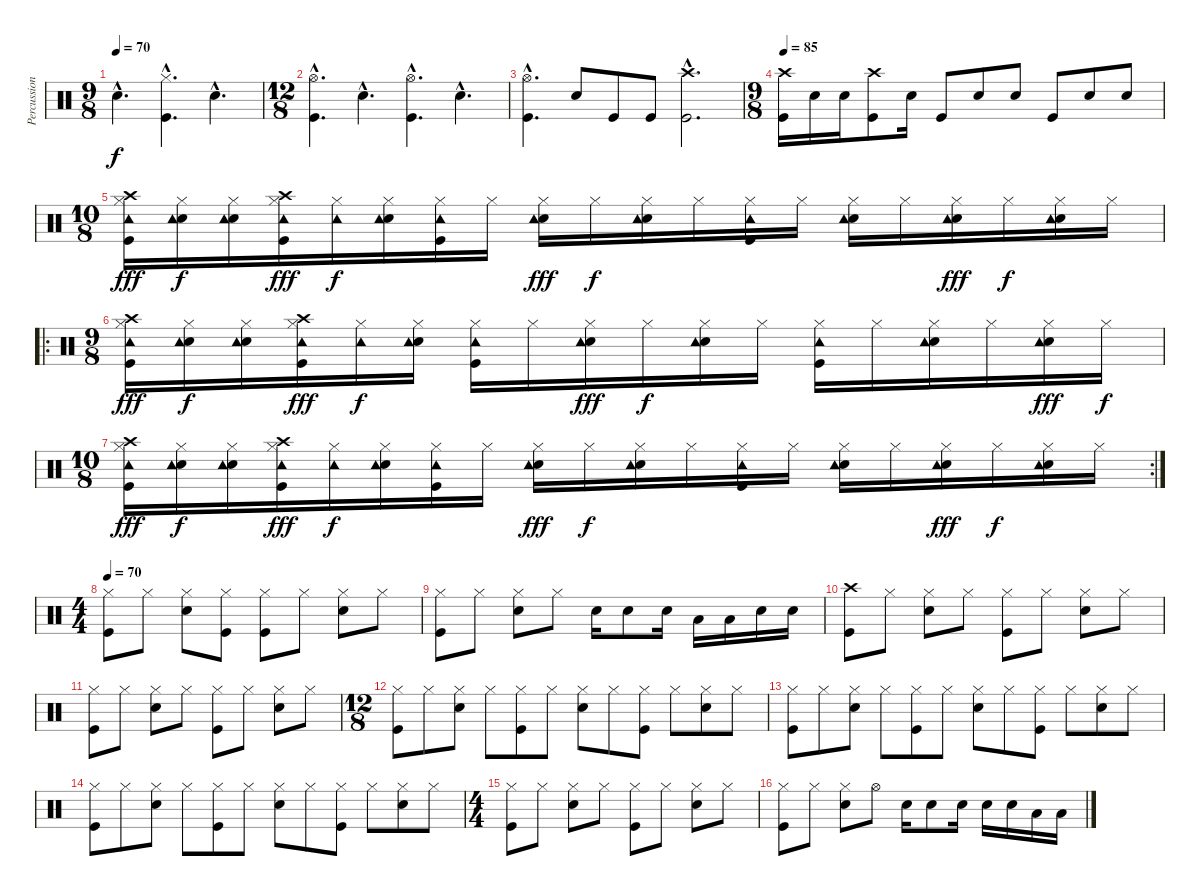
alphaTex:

\track ("Percussion" "Percussion") {instrument percussion}
\staff {score}
\articulation defaults
\ts (9 8)
\tempo 70
\clef neutral
\ks c "Snare (hit) 2"{hac}.4{d dy f}
("Hi-Hat (closed)"{hac} "Kick (hit)"{hac}).4{d} "Snare (hit) 2"{hac}.4{d} |
\ts (12 8)
("Hi-Hat (open)"{hac} "Kick (hit)"{hac}).4{d} "Snare (hit) 2"{hac}.4{d} ("Hi-Hat (open)"{hac} "Kick (hit)"{hac}).4{d} "Snare (hit) 2"{hac}.4{d} |
("Hi-Hat (open)"{hac} "Kick (hit)"{hac}).4{d} "Snare (hit) 2".8 "Kick (hit)".8 "Kick (hit)".8 ("Crash high (hit)"{hac} "Kick (hit)"{hac}).2{d} |
\ts (9 8)
\tempo 85
("Crash high (hit)" "Kick (hit)").16 "Snare (hit) 2".16 "Snare (hit) 2".16 ("Crash high (hit)" "Kick (hit)").8 "Snare (hit) 2".16 "Kick (hit)".8 "Snare (hit) 2".8 "Snare (hit) 2".8 "Kick (hit)".8 "Snare (hit) 2".8 "Snare (hit) 2".8 |
\ts (10 8)
("Crash high (hit)" "Hi-Hat (closed)" "Tambourine (hit)" "Kick (hit)").16{dy fff} ("Hi-Hat (closed)" "Snare (hit) 2" "Tambourine (hit)").16{dy f} ("Hi-Hat (closed)" "Snare (hit) 2" "Tambourine (hit)").16 ("Crash high (hit)" "Hi-Hat (closed)" "Tambourine (hit)" "Kick (hit)").16{dy fff} ("Hi-Hat (closed)" "Tambourine (hit)").16{dy f} ("Hi-Hat (closed)" "Snare (hit) 2" "Tambourine (hit)").16 ("Hi-Hat (closed)" "Tambourine (hit)" "Kick (hit)").16 "Hi-Hat (closed)".16 ("Hi-Hat (closed)" "Snare (hit) 2" "Tambourine (hit)").16{dy fff} "Hi-Hat (closed)".16{dy f} ("Hi-Hat (closed)" "Snare (hit) 2" "Tambourine (hit)").16 "Hi-Hat (closed)".16 ("Hi-Hat (closed)" "Tambourine (hit)" "Kick (hit)").16 "Hi-Hat (closed)".16 ("Hi-Hat (closed)" "Snare (hit) 2" "Tambourine (hit)").16 "Hi-Hat (closed)".16 ("Hi-Hat (closed)" "Snare (hit) 2" "Tambourine (hit)").16{dy fff} "Hi-Hat (closed)".16{dy f} ("Hi-Hat (closed)" "Snare (hit) 2" "Tambourine (hit)").16 "Hi-Hat (closed)".16 |
\ro
\ts (9 8)
("Crash high (hit)" "Hi-Hat (closed)" "Tambourine (hit)" "Kick (hit)").16{dy fff} ("Hi-Hat (closed)" "Snare (hit) 2" "Tambourine (hit)").16{dy f} ("Hi-Hat (closed)" "Snare (hit) 2" "Tambourine (hit)").16 ("Crash high (hit)" "Hi-Hat (closed)" "Tambourine (hit)" "Kick (hit)").16{dy fff} ("Hi-Hat (closed)" "Tambourine (hit)").16{dy f} ("Hi-Hat (closed)" "Snare (hit) 2" "Tambourine (hit)").16 ("Hi-Hat (closed)" "Tambourine (hit)" "Kick (hit)").16 "Hi-Hat (closed)".16 ("Hi-Hat (closed)" "Snare (hit) 2" "Tambourine (hit)").16{dy fff} "Hi-Hat (closed)".16{dy f} ("Hi-Hat (closed)" "Snare (hit) 2" "Tambourine (hit)").16 "Hi-Hat (closed)".16 ("Hi-Hat (closed)" "Tambourine (hit)" "Kick (hit)").16 "Hi-Hat (closed)".16 ("Hi-Hat (closed)" "Snare (hit) 2" "Tambourine (hit)").16 "Hi-Hat (closed)".16 ("Hi-Hat (closed)" "Snare (hit) 2" "Tambourine (hit)").16{dy fff} "Hi-Hat (closed)".16{dy f} |
\rc 2
\ts (10 8)
("Crash high (hit)" "Hi-Hat (closed)" "Tambourine (hit)" "Kick (hit)").16{dy fff} ("Hi-Hat (closed)" "Snare (hit) 2" "Tambourine (hit)").16{dy f} ("Hi-Hat (closed)" "Snare (hit) 2" "Tambourine (hit)").16 ("Crash high (hit)" "Hi-Hat (closed)" "Tambourine (hit)" "Kick (hit)").16{dy fff} ("Hi-Hat (closed)" "Tambourine (hit)").16{dy f} ("Hi-Hat (closed)" "Snare (hit) 2" "Tambourine (hit)").16 ("Hi-Hat (closed)" "Tambourine (hit)" "Kick (hit)").16 "Hi-Hat (closed)".16 ("Hi-Hat (closed)" "Snare (hit) 2" "Tambourine (hit)").16{dy fff} "Hi-Hat (closed)".16{dy f} ("Hi-Hat (closed)" "Snare (hit) 2" "Tambourine (hit)").16 "Hi-Hat (closed)".16 ("Hi-Hat (closed)" "Tambourine (hit)" "Kick (hit)").16 "Hi-Hat (closed)".16 ("Hi-Hat (closed)" "Snare (hit) 2" "Tambourine (hit)").16 "Hi-Hat (closed)".16 ("Hi-Hat (closed)" "Snare (hit) 2" "Tambourine (hit)").16{dy fff} "Hi-Hat (closed)".16{dy f} ("Hi-Hat (closed)" "Snare (hit) 2" "Tambourine (hit)").16 "Hi-Hat (closed)".16 |
\ts (4 4)
\tempo 70
("Hi-Hat (closed)" "Kick (hit)").8 "Hi-Hat (closed)".8 ("Hi-Hat (closed)" "Snare (hit) 2").8 ("Hi-Hat (closed)" "Kick (hit)").8 ("Hi-Hat (closed)" "Kick (hit)").8 "Hi-Hat (closed)".8 ("Hi-Hat (closed)" "Snare (hit) 2").8 "Hi-Hat (closed)".8 |
("Hi-Hat (closed)" "Kick (hit)").8 "Hi-Hat (closed)".8 ("Hi-Hat (closed)" "Snare (hit) 2").8 "Hi-Hat (closed)".8 "Snare (hit) 2".16 "Snare (hit) 2".8 "Snare (hit) 2".16 "Low Floor Tom (hit)".16 "Low Floor Tom (hit)".16 "Snare (hit) 2".16 "Snare (hit) 2".16 |
("Crash high (hit)" "Kick (hit)").8 "Hi-Hat (closed)".8 ("Hi-Hat (closed)" "Snare (hit) 2").8 "Hi-Hat (closed)".8 ("Hi-Hat (closed)" "Kick (hit)").8 "Hi-Hat (closed)".8 ("Hi-Hat (closed)" "Snare (hit) 2").8 "Hi-Hat (closed)".8 |
("Hi-Hat (closed)" "Kick (hit)").8 "Hi-Hat (closed)".8 ("Hi-Hat (closed)" "Snare (hit) 2").8 "Hi-Hat (closed)".8 ("Hi-Hat (closed)" "Kick (hit)").8 "Hi-Hat (closed)".8 ("Hi-Hat (closed)" "Snare (hit) 2").8 "Hi-Hat (closed)".8 |
\ts (12 8)
("Hi-Hat (closed)" "Kick (hit)").8 "Hi-Hat (closed)".8 ("Hi-Hat (closed)" "Snare (hit) 2").8 "Hi-Hat (closed)".8 ("Hi-Hat (closed)" "Kick (hit)").8 "Hi-Hat (closed)".8 ("Hi-Hat (closed)" "Snare (hit) 2").8 "Hi-Hat (closed)".8 ("Hi-Hat (closed)" "Kick (hit)").8 "Hi-Hat (closed)".8 ("Hi-Hat (closed)" "Snare (hit) 2").8 "Hi-Hat (closed)".8 |
("Hi-Hat (closed)" "Kick (hit)").8 "Hi-Hat (closed)".8 ("Hi-Hat (closed)" "Snare (hit) 2").8 "Hi-Hat (closed)".8 ("Hi-Hat (closed)" "Kick (hit)").8 "Hi-Hat (closed)".8 ("Hi-Hat (closed)" "Snare (hit) 2").8 "Hi-Hat (closed)".8 ("Hi-Hat (closed)" "Kick (hit)").8 "Hi-Hat (closed)".8 ("Hi-Hat (closed)" "Snare (hit) 2").8 "Hi-Hat (closed)".8 |
("Hi-Hat (closed)" "Kick (hit)").8 "Hi-Hat (closed)".8 ("Hi-Hat (closed)" "Snare (hit) 2").8 "Hi-Hat (closed)".8 ("Hi-Hat (closed)" "Kick (hit)").8 "Hi-Hat (closed)".8 ("Hi-Hat (closed)" "Snare (hit) 2").8 "Hi-Hat (closed)".8 ("Hi-Hat (closed)" "Kick (hit)").8 "Hi-Hat (closed)".8 ("Hi-Hat (closed)" "Snare (hit) 2").8 "Hi-Hat (closed)".8 |
\ts (4 4)
("Hi-Hat (closed)" "Kick (hit)").8 "Hi-Hat (closed)".8 ("Hi-Hat (closed)" "Snare (hit) 2").8 "Hi-Hat (closed)".8 ("Hi-Hat (closed)" "Kick (hit)").8 "Hi-Hat (closed)".8 ("Hi-Hat (closed)" "Snare (hit) 2").8 "Hi-Hat (closed)".8 |
("Hi-Hat (closed)" "Kick (hit)").8 "Hi-Hat (closed)".8 ("Hi-Hat (closed)" "Snare (hit) 2").8 "Hi-Hat (open)".8 "Snare (hit) 2".16 "Snare (hit) 2".8 "Snare (hit) 2".16 "Snare (hit) 2".16 "Snare (hit) 2".16 "Low Floor Tom (hit)".16 "Low Floor Tom (hit)".16
